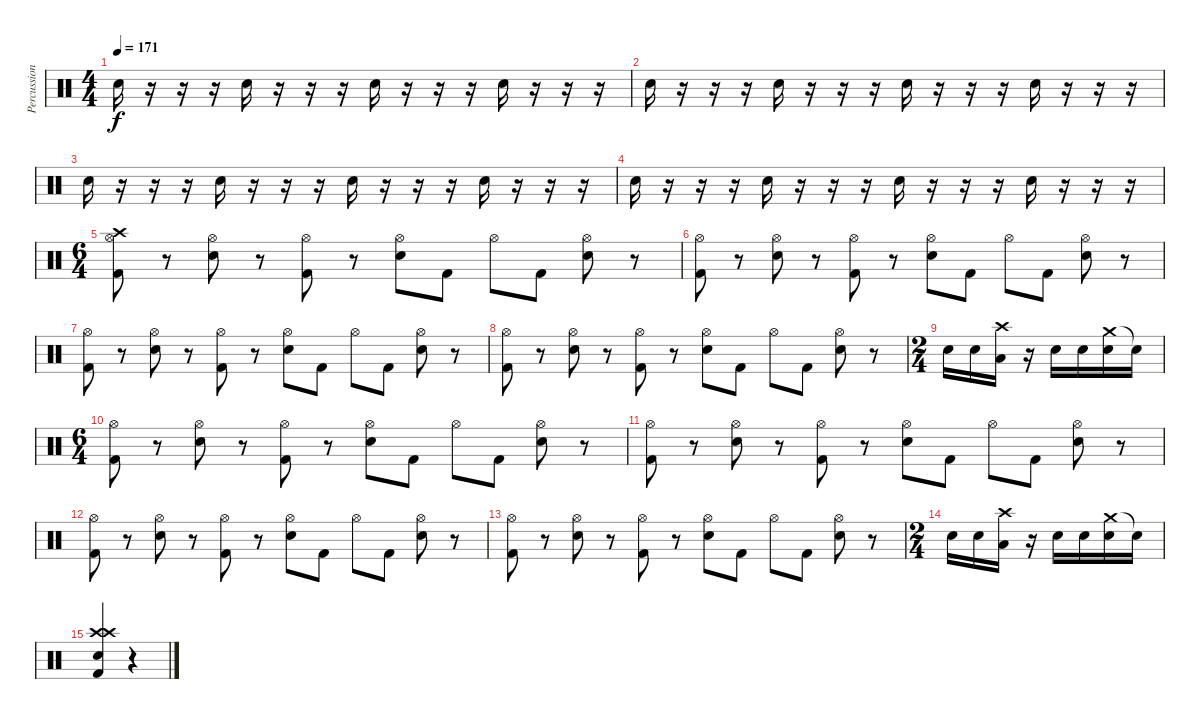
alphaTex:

\track ("Percussions" "Percussion") {instrument percussion}
\staff {score}
\articulation defaults
\ts (4 4)
\tempo 171
\clef neutral
\ks c "Electric Snare (hit)".16{dy f}
r.16 r.16 r.16 "Electric Snare (hit)".16 r.16 r.16 r.16 "Electric Snare (hit)".16 r.16 r.16 r.16 "Electric Snare (hit)".16 r.16 r.16 r.16 |
"Electric Snare (hit)".16 r.16 r.16 r.16 "Electric Snare (hit)".16 r.16 r.16 r.16 "Electric Snare (hit)".16 r.16 r.16 r.16 "Electric Snare (hit)".16 r.16 r.16 r.16 |
"Electric Snare (hit)".16 r.16 r.16 r.16 "Electric Snare (hit)".16 r.16 r.16 r.16 "Electric Snare (hit)".16 r.16 r.16 r.16 "Electric Snare (hit)".16 r.16 r.16 r.16 |
"Electric Snare (hit)".16 r.16 r.16 r.16 "Electric Snare (hit)".16 r.16 r.16 r.16 "Electric Snare (hit)".16 r.16 r.16 r.16 "Electric Snare (hit)".16 r.16 r.16 r.16 |
\ts (6 4)
("Crash high (hit)" "Hi-Hat (open)" "Kick (hit) 2").8 r.8 ("Hi-Hat (open)" "Electric Snare (hit)").8 r.8 ("Hi-Hat (open)" "Kick (hit) 2").8 r.8 ("Hi-Hat (open)" "Electric Snare (hit)").8 "Kick (hit) 2".8 "Hi-Hat (open)".8 "Kick (hit) 2".8 ("Hi-Hat (open)" "Electric Snare (hit)").8 r.8 |
("Hi-Hat (open)" "Kick (hit) 2").8 r.8 ("Hi-Hat (open)" "Electric Snare (hit)").8 r.8 ("Hi-Hat (open)" "Kick (hit) 2").8 r.8 ("Hi-Hat (open)" "Electric Snare (hit)").8 "Kick (hit) 2".8 "Hi-Hat (open)".8 "Kick (hit) 2".8 ("Hi-Hat (open)" "Electric Snare (hit)").8 r.8 |
("Hi-Hat (open)" "Kick (hit) 2").8 r.8 ("Hi-Hat (open)" "Electric Snare (hit)").8 r.8 ("Hi-Hat (open)" "Kick (hit) 2").8 r.8 ("Hi-Hat (open)" "Electric Snare (hit)").8 "Kick (hit) 2".8 "Hi-Hat (open)".8 "Kick (hit) 2".8 ("Hi-Hat (open)" "Electric Snare (hit)").8 r.8 |
("Hi-Hat (open)" "Kick (hit) 2").8 r.8 ("Hi-Hat (open)" "Electric Snare (hit)").8 r.8 ("Hi-Hat (open)" "Kick (hit) 2").8 r.8 ("Hi-Hat (open)" "Electric Snare (hit)").8 "Kick (hit) 2".8 "Hi-Hat (open)".8 "Kick (hit) 2".8 ("Hi-Hat (open)" "Electric Snare (hit)").8 r.8 |
\ts (2 4)
"Electric Snare (hit)".16 "Electric Snare (hit)".16 ("Crash high (hit)" "Low Floor Tom (hit)").16 r.16 "Electric Snare (hit)".16 "Electric Snare (hit)".16 ("Crash medium (hit)" "Electric Snare (hit)").16 "Snare (hit)"{t}.16 |
\ts (6 4)
("Hi-Hat (open)" "Kick (hit) 2").8 r.8 ("Hi-Hat (open)" "Electric Snare (hit)").8 r.8 ("Hi-Hat (open)" "Kick (hit) 2").8 r.8 ("Hi-Hat (open)" "Electric Snare (hit)").8 "Kick (hit) 2".8 "Hi-Hat (open)".8 "Kick (hit) 2".8 ("Hi-Hat (open)" "Electric Snare (hit)").8 r.8 |
("Hi-Hat (open)" "Kick (hit) 2").8 r.8 ("Hi-Hat (open)" "Electric Snare (hit)").8 r.8 ("Hi-Hat (open)" "Kick (hit) 2").8 r.8 ("Hi-Hat (open)" "Electric Snare (hit)").8 "Kick (hit) 2".8 "Hi-Hat (open)".8 "Kick (hit) 2".8 ("Hi-Hat (open)" "Electric Snare (hit)").8 r.8 |
("Hi-Hat (open)" "Kick (hit) 2").8 r.8 ("Hi-Hat (open)" "Electric Snare (hit)").8 r.8 ("Hi-Hat (open)" "Kick (hit) 2").8 r.8 ("Hi-Hat (open)" "Electric Snare (hit)").8 "Kick (hit) 2".8 "Hi-Hat (open)".8 "Kick (hit) 2".8 ("Hi-Hat (open)" "Electric Snare (hit)").8 r.8 |
("Hi-Hat (open)" "Kick (hit) 2").8 r.8 ("Hi-Hat (open)" "Electric Snare (hit)").8 r.8 ("Hi-Hat (open)" "Kick (hit) 2").8 r.8 ("Hi-Hat (open)" "Electric Snare (hit)").8 "Kick (hit) 2".8 "Hi-Hat (open)".8 "Kick (hit) 2".8 ("Hi-Hat (open)" "Electric Snare (hit)").8 r.8 |
\ts (2 4)
"Electric Snare (hit)".16 "Electric Snare (hit)".16 ("Crash high (hit)" "Low Floor Tom (hit)").16 r.16 "Electric Snare (hit)".16 "Electric Snare (hit)".16 ("Crash medium (hit)" "Electric Snare (hit)").16 "Snare (hit)"{t}.16 |
("Crash high (hit)" "Crash high (hit)" "Electric Snare (hit)" "Kick (hit) 2").4 r.4
